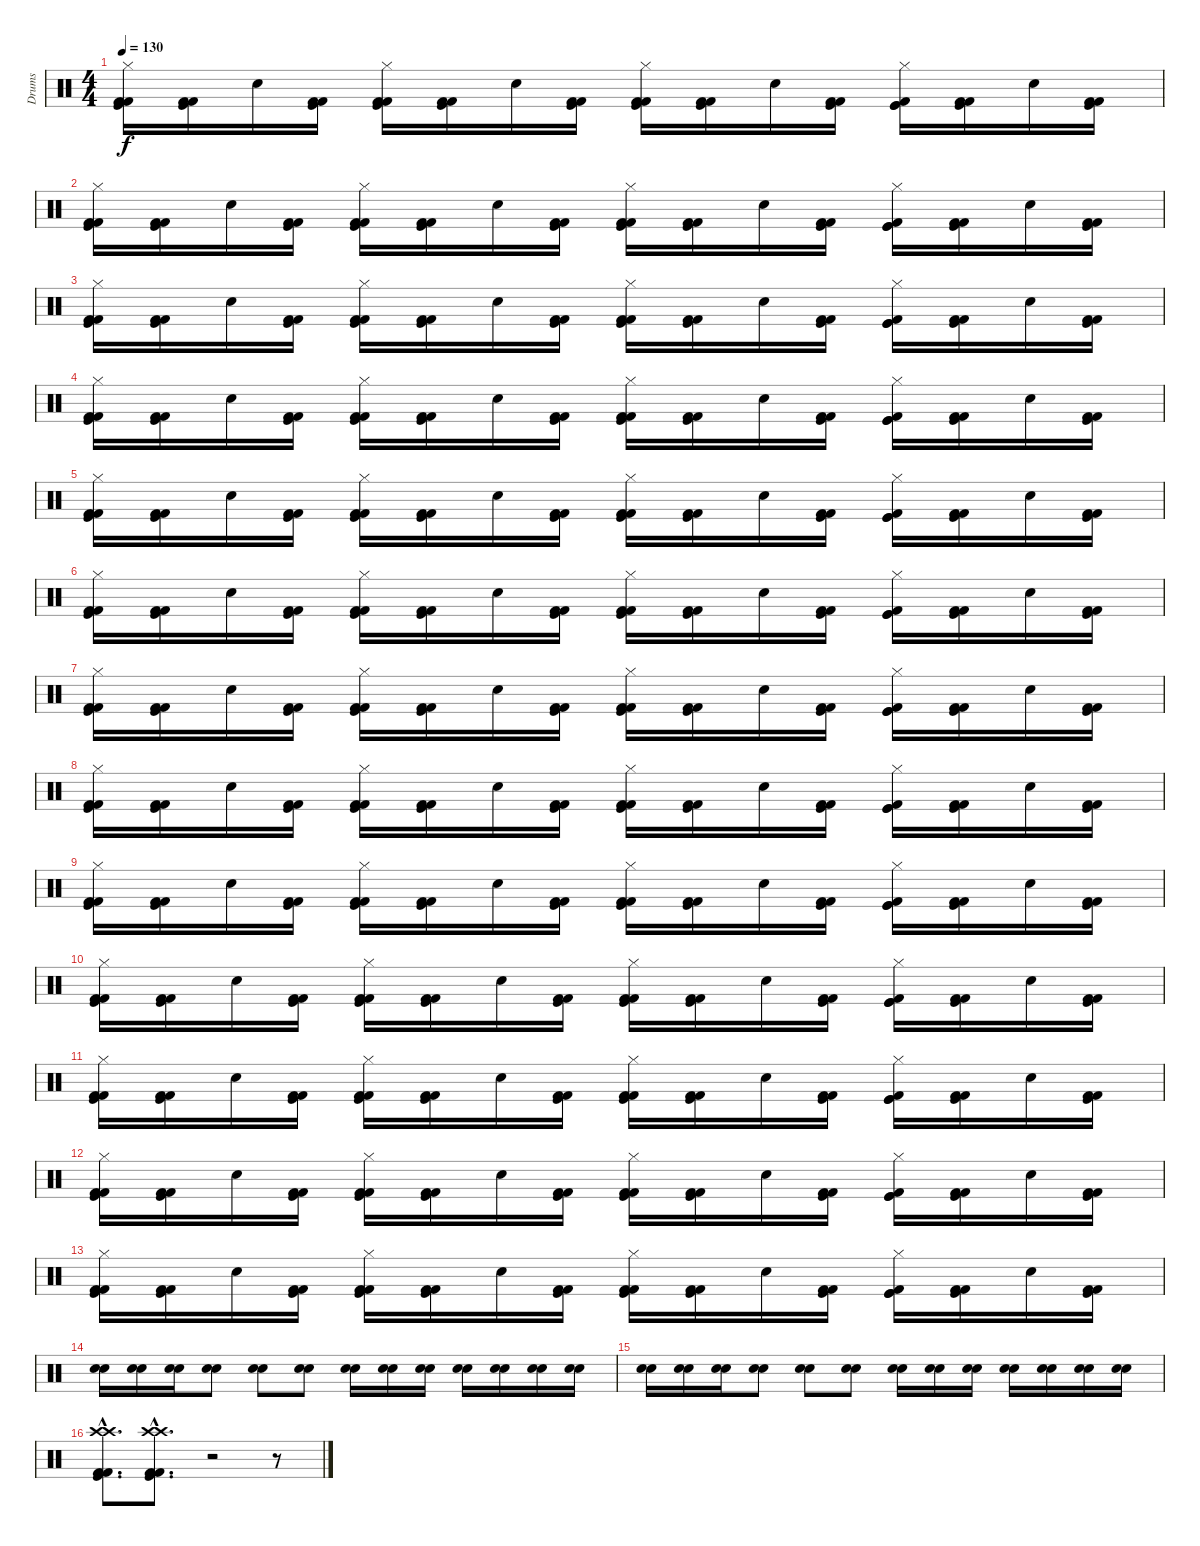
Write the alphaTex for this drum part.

\track ("Drums" "Drums") {instrument percussion}
\staff {score}
\articulation defaults
\ts (4 4)
\tempo 130
\clef neutral
\ks c
("Hi-Hat (closed)" "Kick (hit)" "Kick (hit) 2" "Kick (hit) 2").16{dy f} ("Kick (hit)" "Kick (hit) 2" "Kick (hit) 2").16 "Electric Snare (hit)".16 ("Kick (hit)" "Kick (hit) 2" "Kick (hit) 2").16 ("Hi-Hat (closed)" "Kick (hit)" "Kick (hit) 2" "Kick (hit) 2").16 ("Kick (hit)" "Kick (hit) 2" "Kick (hit) 2").16 "Electric Snare (hit)".16 ("Kick (hit)" "Kick (hit) 2" "Kick (hit) 2").16 ("Hi-Hat (closed)" "Kick (hit)" "Kick (hit) 2" "Kick (hit) 2").16 ("Kick (hit)" "Kick (hit) 2" "Kick (hit) 2").16 "Electric Snare (hit)".16 ("Kick (hit)" "Kick (hit) 2" "Kick (hit) 2").16 ("Hi-Hat (closed)" "Kick (hit)" "Kick (hit)" "Kick (hit) 2").16 ("Kick (hit)" "Kick (hit) 2" "Kick (hit) 2").16 "Electric Snare (hit)".16 ("Kick (hit)" "Kick (hit) 2" "Kick (hit) 2").16 |
("Hi-Hat (closed)" "Kick (hit)" "Kick (hit) 2" "Kick (hit) 2").16 ("Kick (hit)" "Kick (hit) 2" "Kick (hit) 2").16 "Electric Snare (hit)".16 ("Kick (hit)" "Kick (hit) 2" "Kick (hit) 2").16 ("Hi-Hat (closed)" "Kick (hit)" "Kick (hit) 2" "Kick (hit) 2").16 ("Kick (hit)" "Kick (hit) 2" "Kick (hit) 2").16 "Electric Snare (hit)".16 ("Kick (hit)" "Kick (hit) 2" "Kick (hit) 2").16 ("Hi-Hat (closed)" "Kick (hit)" "Kick (hit) 2" "Kick (hit) 2").16 ("Kick (hit)" "Kick (hit) 2" "Kick (hit) 2").16 "Electric Snare (hit)".16 ("Kick (hit)" "Kick (hit) 2" "Kick (hit) 2").16 ("Hi-Hat (closed)" "Kick (hit)" "Kick (hit)" "Kick (hit) 2").16 ("Kick (hit)" "Kick (hit) 2" "Kick (hit) 2").16 "Electric Snare (hit)".16 ("Kick (hit)" "Kick (hit) 2" "Kick (hit) 2").16 |
("Hi-Hat (closed)" "Kick (hit)" "Kick (hit) 2" "Kick (hit) 2").16 ("Kick (hit)" "Kick (hit) 2" "Kick (hit) 2").16 "Electric Snare (hit)".16 ("Kick (hit)" "Kick (hit) 2" "Kick (hit) 2").16 ("Hi-Hat (closed)" "Kick (hit)" "Kick (hit) 2" "Kick (hit) 2").16 ("Kick (hit)" "Kick (hit) 2" "Kick (hit) 2").16 "Electric Snare (hit)".16 ("Kick (hit)" "Kick (hit) 2" "Kick (hit) 2").16 ("Hi-Hat (closed)" "Kick (hit)" "Kick (hit) 2" "Kick (hit) 2").16 ("Kick (hit)" "Kick (hit) 2" "Kick (hit) 2").16 "Electric Snare (hit)".16 ("Kick (hit)" "Kick (hit) 2" "Kick (hit) 2").16 ("Hi-Hat (closed)" "Kick (hit)" "Kick (hit)" "Kick (hit) 2").16 ("Kick (hit)" "Kick (hit) 2" "Kick (hit) 2").16 "Electric Snare (hit)".16 ("Kick (hit)" "Kick (hit) 2" "Kick (hit) 2").16 |
("Hi-Hat (closed)" "Kick (hit)" "Kick (hit) 2" "Kick (hit) 2").16 ("Kick (hit)" "Kick (hit) 2" "Kick (hit) 2").16 "Electric Snare (hit)".16 ("Kick (hit)" "Kick (hit) 2" "Kick (hit) 2").16 ("Hi-Hat (closed)" "Kick (hit)" "Kick (hit) 2" "Kick (hit) 2").16 ("Kick (hit)" "Kick (hit) 2" "Kick (hit) 2").16 "Electric Snare (hit)".16 ("Kick (hit)" "Kick (hit) 2" "Kick (hit) 2").16 ("Hi-Hat (closed)" "Kick (hit)" "Kick (hit) 2" "Kick (hit) 2").16 ("Kick (hit)" "Kick (hit) 2" "Kick (hit) 2").16 "Electric Snare (hit)".16 ("Kick (hit)" "Kick (hit) 2" "Kick (hit) 2").16 ("Hi-Hat (closed)" "Kick (hit)" "Kick (hit)" "Kick (hit) 2").16 ("Kick (hit)" "Kick (hit) 2" "Kick (hit) 2").16 "Electric Snare (hit)".16 ("Kick (hit)" "Kick (hit) 2" "Kick (hit) 2").16 |
("Hi-Hat (closed)" "Kick (hit)" "Kick (hit) 2" "Kick (hit) 2").16 ("Kick (hit)" "Kick (hit) 2" "Kick (hit) 2").16 "Electric Snare (hit)".16 ("Kick (hit)" "Kick (hit) 2" "Kick (hit) 2").16 ("Hi-Hat (closed)" "Kick (hit)" "Kick (hit) 2" "Kick (hit) 2").16 ("Kick (hit)" "Kick (hit) 2" "Kick (hit) 2").16 "Electric Snare (hit)".16 ("Kick (hit)" "Kick (hit) 2" "Kick (hit) 2").16 ("Hi-Hat (closed)" "Kick (hit)" "Kick (hit) 2" "Kick (hit) 2").16 ("Kick (hit)" "Kick (hit) 2" "Kick (hit) 2").16 "Electric Snare (hit)".16 ("Kick (hit)" "Kick (hit) 2" "Kick (hit) 2").16 ("Hi-Hat (closed)" "Kick (hit)" "Kick (hit)" "Kick (hit) 2").16 ("Kick (hit)" "Kick (hit) 2" "Kick (hit) 2").16 "Electric Snare (hit)".16 ("Kick (hit)" "Kick (hit) 2" "Kick (hit) 2").16 |
("Hi-Hat (closed)" "Kick (hit)" "Kick (hit) 2" "Kick (hit) 2").16 ("Kick (hit)" "Kick (hit) 2" "Kick (hit) 2").16 "Electric Snare (hit)".16 ("Kick (hit)" "Kick (hit) 2" "Kick (hit) 2").16 ("Hi-Hat (closed)" "Kick (hit)" "Kick (hit) 2" "Kick (hit) 2").16 ("Kick (hit)" "Kick (hit) 2" "Kick (hit) 2").16 "Electric Snare (hit)".16 ("Kick (hit)" "Kick (hit) 2" "Kick (hit) 2").16 ("Hi-Hat (closed)" "Kick (hit)" "Kick (hit) 2" "Kick (hit) 2").16 ("Kick (hit)" "Kick (hit) 2" "Kick (hit) 2").16 "Electric Snare (hit)".16 ("Kick (hit)" "Kick (hit) 2" "Kick (hit) 2").16 ("Hi-Hat (closed)" "Kick (hit)" "Kick (hit)" "Kick (hit) 2").16 ("Kick (hit)" "Kick (hit) 2" "Kick (hit) 2").16 "Electric Snare (hit)".16 ("Kick (hit)" "Kick (hit) 2" "Kick (hit) 2").16 |
("Hi-Hat (closed)" "Kick (hit)" "Kick (hit) 2" "Kick (hit) 2").16 ("Kick (hit)" "Kick (hit) 2" "Kick (hit) 2").16 "Electric Snare (hit)".16 ("Kick (hit)" "Kick (hit) 2" "Kick (hit) 2").16 ("Hi-Hat (closed)" "Kick (hit)" "Kick (hit) 2" "Kick (hit) 2").16 ("Kick (hit)" "Kick (hit) 2" "Kick (hit) 2").16 "Electric Snare (hit)".16 ("Kick (hit)" "Kick (hit) 2" "Kick (hit) 2").16 ("Hi-Hat (closed)" "Kick (hit)" "Kick (hit) 2" "Kick (hit) 2").16 ("Kick (hit)" "Kick (hit) 2" "Kick (hit) 2").16 "Electric Snare (hit)".16 ("Kick (hit)" "Kick (hit) 2" "Kick (hit) 2").16 ("Hi-Hat (closed)" "Kick (hit)" "Kick (hit)" "Kick (hit) 2").16 ("Kick (hit)" "Kick (hit) 2" "Kick (hit) 2").16 "Electric Snare (hit)".16 ("Kick (hit)" "Kick (hit) 2" "Kick (hit) 2").16 |
("Hi-Hat (closed)" "Kick (hit)" "Kick (hit) 2" "Kick (hit) 2").16 ("Kick (hit)" "Kick (hit) 2" "Kick (hit) 2").16 "Electric Snare (hit)".16 ("Kick (hit)" "Kick (hit) 2" "Kick (hit) 2").16 ("Hi-Hat (closed)" "Kick (hit)" "Kick (hit) 2" "Kick (hit) 2").16 ("Kick (hit)" "Kick (hit) 2" "Kick (hit) 2").16 "Electric Snare (hit)".16 ("Kick (hit)" "Kick (hit) 2" "Kick (hit) 2").16 ("Hi-Hat (closed)" "Kick (hit)" "Kick (hit) 2" "Kick (hit) 2").16 ("Kick (hit)" "Kick (hit) 2" "Kick (hit) 2").16 "Electric Snare (hit)".16 ("Kick (hit)" "Kick (hit) 2" "Kick (hit) 2").16 ("Hi-Hat (closed)" "Kick (hit)" "Kick (hit)" "Kick (hit) 2").16 ("Kick (hit)" "Kick (hit) 2" "Kick (hit) 2").16 "Electric Snare (hit)".16 ("Kick (hit)" "Kick (hit) 2" "Kick (hit) 2").16 |
("Hi-Hat (closed)" "Kick (hit)" "Kick (hit) 2" "Kick (hit) 2").16 ("Kick (hit)" "Kick (hit) 2" "Kick (hit) 2").16 "Electric Snare (hit)".16 ("Kick (hit)" "Kick (hit) 2" "Kick (hit) 2").16 ("Hi-Hat (closed)" "Kick (hit)" "Kick (hit) 2" "Kick (hit) 2").16 ("Kick (hit)" "Kick (hit) 2" "Kick (hit) 2").16 "Electric Snare (hit)".16 ("Kick (hit)" "Kick (hit) 2" "Kick (hit) 2").16 ("Hi-Hat (closed)" "Kick (hit)" "Kick (hit) 2" "Kick (hit) 2").16 ("Kick (hit)" "Kick (hit) 2" "Kick (hit) 2").16 "Electric Snare (hit)".16 ("Kick (hit)" "Kick (hit) 2" "Kick (hit) 2").16 ("Hi-Hat (closed)" "Kick (hit)" "Kick (hit)" "Kick (hit) 2").16 ("Kick (hit)" "Kick (hit) 2" "Kick (hit) 2").16 "Electric Snare (hit)".16 ("Kick (hit)" "Kick (hit) 2" "Kick (hit) 2").16 |
("Hi-Hat (closed)" "Kick (hit)" "Kick (hit) 2" "Kick (hit) 2").16 ("Kick (hit)" "Kick (hit) 2" "Kick (hit) 2").16 "Electric Snare (hit)".16 ("Kick (hit)" "Kick (hit) 2" "Kick (hit) 2").16 ("Hi-Hat (closed)" "Kick (hit)" "Kick (hit) 2" "Kick (hit) 2").16 ("Kick (hit)" "Kick (hit) 2" "Kick (hit) 2").16 "Electric Snare (hit)".16 ("Kick (hit)" "Kick (hit) 2" "Kick (hit) 2").16 ("Hi-Hat (closed)" "Kick (hit)" "Kick (hit) 2" "Kick (hit) 2").16 ("Kick (hit)" "Kick (hit) 2" "Kick (hit) 2").16 "Electric Snare (hit)".16 ("Kick (hit)" "Kick (hit) 2" "Kick (hit) 2").16 ("Hi-Hat (closed)" "Kick (hit)" "Kick (hit)" "Kick (hit) 2").16 ("Kick (hit)" "Kick (hit) 2" "Kick (hit) 2").16 "Electric Snare (hit)".16 ("Kick (hit)" "Kick (hit) 2" "Kick (hit) 2").16 |
("Hi-Hat (closed)" "Kick (hit)" "Kick (hit) 2" "Kick (hit) 2").16 ("Kick (hit)" "Kick (hit) 2" "Kick (hit) 2").16 "Electric Snare (hit)".16 ("Kick (hit)" "Kick (hit) 2" "Kick (hit) 2").16 ("Hi-Hat (closed)" "Kick (hit)" "Kick (hit) 2" "Kick (hit) 2").16 ("Kick (hit)" "Kick (hit) 2" "Kick (hit) 2").16 "Electric Snare (hit)".16 ("Kick (hit)" "Kick (hit) 2" "Kick (hit) 2").16 ("Hi-Hat (closed)" "Kick (hit)" "Kick (hit) 2" "Kick (hit) 2").16 ("Kick (hit)" "Kick (hit) 2" "Kick (hit) 2").16 "Electric Snare (hit)".16 ("Kick (hit)" "Kick (hit) 2" "Kick (hit) 2").16 ("Hi-Hat (closed)" "Kick (hit)" "Kick (hit)" "Kick (hit) 2").16 ("Kick (hit)" "Kick (hit) 2" "Kick (hit) 2").16 "Electric Snare (hit)".16 ("Kick (hit)" "Kick (hit) 2" "Kick (hit) 2").16 |
("Hi-Hat (closed)" "Kick (hit)" "Kick (hit) 2" "Kick (hit) 2").16 ("Kick (hit)" "Kick (hit) 2" "Kick (hit) 2").16 "Electric Snare (hit)".16 ("Kick (hit)" "Kick (hit) 2" "Kick (hit) 2").16 ("Hi-Hat (closed)" "Kick (hit)" "Kick (hit) 2" "Kick (hit) 2").16 ("Kick (hit)" "Kick (hit) 2" "Kick (hit) 2").16 "Electric Snare (hit)".16 ("Kick (hit)" "Kick (hit) 2" "Kick (hit) 2").16 ("Hi-Hat (closed)" "Kick (hit)" "Kick (hit) 2" "Kick (hit) 2").16 ("Kick (hit)" "Kick (hit) 2" "Kick (hit) 2").16 "Electric Snare (hit)".16 ("Kick (hit)" "Kick (hit) 2" "Kick (hit) 2").16 ("Hi-Hat (closed)" "Kick (hit)" "Kick (hit)" "Kick (hit) 2").16 ("Kick (hit)" "Kick (hit) 2" "Kick (hit) 2").16 "Electric Snare (hit)".16 ("Kick (hit)" "Kick (hit) 2" "Kick (hit) 2").16 |
("Hi-Hat (closed)" "Kick (hit)" "Kick (hit) 2" "Kick (hit) 2").16 ("Kick (hit)" "Kick (hit) 2" "Kick (hit) 2").16 "Electric Snare (hit)".16 ("Kick (hit)" "Kick (hit) 2" "Kick (hit) 2").16 ("Hi-Hat (closed)" "Kick (hit)" "Kick (hit) 2" "Kick (hit) 2").16 ("Kick (hit)" "Kick (hit) 2" "Kick (hit) 2").16 "Electric Snare (hit)".16 ("Kick (hit)" "Kick (hit) 2" "Kick (hit) 2").16 ("Hi-Hat (closed)" "Kick (hit)" "Kick (hit) 2" "Kick (hit) 2").16 ("Kick (hit)" "Kick (hit) 2" "Kick (hit) 2").16 "Electric Snare (hit)".16 ("Kick (hit)" "Kick (hit) 2" "Kick (hit) 2").16 ("Hi-Hat (closed)" "Kick (hit)" "Kick (hit)" "Kick (hit) 2").16 ("Kick (hit)" "Kick (hit) 2" "Kick (hit) 2").16 "Electric Snare (hit)".16 ("Kick (hit)" "Kick (hit) 2" "Kick (hit) 2").16 |
("Electric Snare (hit)" "Electric Snare (hit)").16 ("Electric Snare (hit)" "Electric Snare (hit)").16 ("Electric Snare (hit)" "Electric Snare (hit)").16 ("Electric Snare (hit)" "Electric Snare (hit)").8 ("Electric Snare (hit)" "Electric Snare (hit)").8 ("Electric Snare (hit)" "Electric Snare (hit)").8 ("Electric Snare (hit)" "Electric Snare (hit)").16 ("Electric Snare (hit)" "Electric Snare (hit)").16 ("Electric Snare (hit)" "Electric Snare (hit)").16 ("Electric Snare (hit)" "Electric Snare (hit)").16 ("Electric Snare (hit)" "Electric Snare (hit)").16 ("Electric Snare (hit)" "Electric Snare (hit)").16 ("Electric Snare (hit)" "Electric Snare (hit)").16 |
("Electric Snare (hit)" "Electric Snare (hit)").16 ("Electric Snare (hit)" "Electric Snare (hit)").16 ("Electric Snare (hit)" "Electric Snare (hit)").16 ("Electric Snare (hit)" "Electric Snare (hit)").8 ("Electric Snare (hit)" "Electric Snare (hit)").8 ("Electric Snare (hit)" "Electric Snare (hit)").8 ("Electric Snare (hit)" "Electric Snare (hit)").16 ("Electric Snare (hit)" "Electric Snare (hit)").16 ("Electric Snare (hit)" "Electric Snare (hit)").16 ("Electric Snare (hit)" "Electric Snare (hit)").16 ("Electric Snare (hit)" "Electric Snare (hit)").16 ("Electric Snare (hit)" "Electric Snare (hit)").16 ("Electric Snare (hit)" "Electric Snare (hit)").16 |
("Crash high (hit)"{hac} "Crash high (hit)"{hac} "Kick (hit)"{hac} "Kick (hit) 2"{hac} "Kick (hit) 2"{hac}).8{d} ("Crash high (hit)"{hac} "Crash high (hit)"{hac} "Kick (hit)"{hac} "Kick (hit) 2"{hac} "Kick (hit) 2"{hac}).8{d} r.2 r.8
